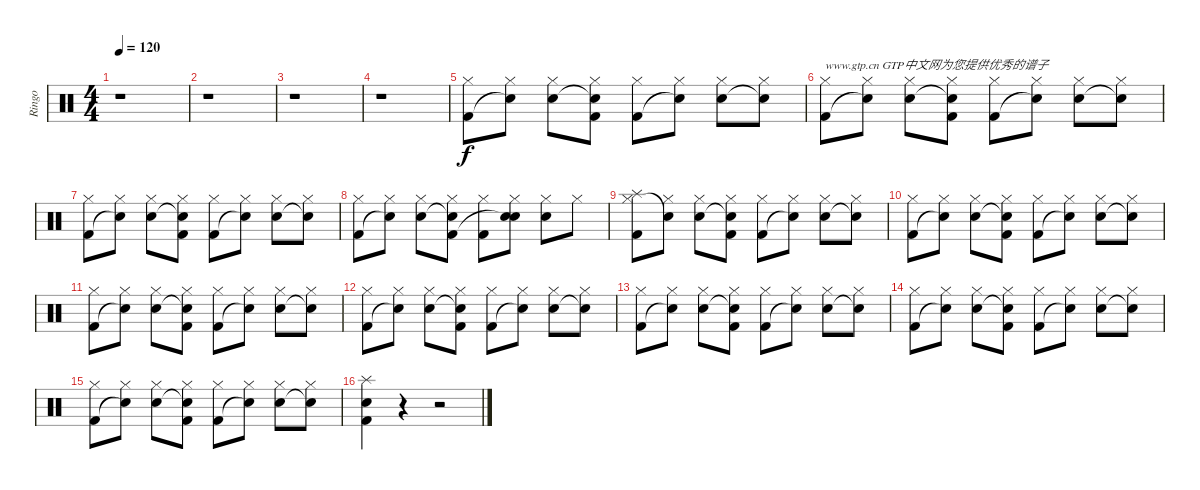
\track ("Ringo" "Ringo") {instrument percussion}
\staff {score}
\articulation defaults
\ts (4 4)
\tempo 120
\clef neutral
\ks c
r.1{dy f} |
r.1 |
r.1 |
r.1 |
("Hi-Hat (closed)" "Kick (hit) 2").8 ("Hi-Hat (closed)" "Snare (hit)"{t}).8 ("Hi-Hat (closed)" "Snare (hit) 2").8 ("Hi-Hat (closed)" "Snare (hit)"{t} "Kick (hit) 2").8 ("Hi-Hat (closed)" "Kick (hit) 2").8 ("Hi-Hat (closed)" "Snare (hit)"{t}).8 ("Hi-Hat (closed)" "Snare (hit) 2").8 ("Hi-Hat (closed)" "Snare (hit)"{t}).8 |
("Hi-Hat (closed)" "Kick (hit) 2").8{txt "www.gtp.cn GTP中文网为您提供优秀的谱子"} ("Hi-Hat (closed)" "Snare (hit)"{t}).8 ("Hi-Hat (closed)" "Snare (hit) 2").8 ("Hi-Hat (closed)" "Snare (hit)"{t} "Kick (hit) 2").8 ("Hi-Hat (closed)" "Kick (hit) 2").8 ("Hi-Hat (closed)" "Snare (hit)"{t}).8 ("Hi-Hat (closed)" "Snare (hit) 2").8 ("Hi-Hat (closed)" "Snare (hit)"{t}).8 |
("Hi-Hat (closed)" "Kick (hit) 2").8 ("Hi-Hat (closed)" "Snare (hit)"{t}).8 ("Hi-Hat (closed)" "Snare (hit) 2").8 ("Hi-Hat (closed)" "Snare (hit)"{t} "Kick (hit) 2").8 ("Hi-Hat (closed)" "Kick (hit) 2").8 ("Hi-Hat (closed)" "Snare (hit)"{t}).8 ("Hi-Hat (closed)" "Snare (hit) 2").8 ("Hi-Hat (closed)" "Snare (hit)"{t}).8 |
("Hi-Hat (closed)" "Kick (hit) 2").8 ("Hi-Hat (closed)" "Snare (hit)"{t}).8 ("Hi-Hat (closed)" "Snare (hit) 2").8 ("Hi-Hat (closed)" "Snare (hit)"{t} "Kick (hit) 2").8 ("Hi-Hat (closed)" "Kick (hit) 2").8 ("Hi-Hat (closed)" "Snare (hit) 2" "Snare (hit)"{t}).8 ("Hi-Hat (closed)" "Snare (hit) 2").8 "Hi-Hat (closed)".8 |
("Splash (hit)" "Hi-Hat (closed)" "Kick (hit) 2").8 ("Hi-Hat (closed)" "Snare (hit)"{t}).8 ("Hi-Hat (closed)" "Snare (hit) 2").8 ("Hi-Hat (closed)" "Snare (hit)"{t} "Kick (hit) 2").8 ("Hi-Hat (closed)" "Kick (hit) 2").8 ("Hi-Hat (closed)" "Snare (hit)"{t}).8 ("Hi-Hat (closed)" "Snare (hit) 2").8 ("Hi-Hat (closed)" "Snare (hit)"{t}).8 |
("Hi-Hat (closed)" "Kick (hit) 2").8 ("Hi-Hat (closed)" "Snare (hit)"{t}).8 ("Hi-Hat (closed)" "Snare (hit) 2").8 ("Hi-Hat (closed)" "Snare (hit)"{t} "Kick (hit) 2").8 ("Hi-Hat (closed)" "Kick (hit) 2").8 ("Hi-Hat (closed)" "Snare (hit)"{t}).8 ("Hi-Hat (closed)" "Snare (hit) 2").8 ("Hi-Hat (closed)" "Snare (hit)"{t}).8 |
("Hi-Hat (closed)" "Kick (hit) 2").8 ("Hi-Hat (closed)" "Snare (hit)"{t}).8 ("Hi-Hat (closed)" "Snare (hit) 2").8 ("Hi-Hat (closed)" "Snare (hit)"{t} "Kick (hit) 2").8 ("Hi-Hat (closed)" "Kick (hit) 2").8 ("Hi-Hat (closed)" "Snare (hit)"{t}).8 ("Hi-Hat (closed)" "Snare (hit) 2").8 ("Hi-Hat (closed)" "Snare (hit)"{t}).8 |
("Hi-Hat (closed)" "Kick (hit) 2").8 ("Hi-Hat (closed)" "Snare (hit)"{t}).8 ("Hi-Hat (closed)" "Snare (hit) 2").8 ("Hi-Hat (closed)" "Snare (hit)"{t} "Kick (hit) 2").8 ("Hi-Hat (closed)" "Kick (hit) 2").8 ("Hi-Hat (closed)" "Snare (hit)"{t}).8 ("Hi-Hat (closed)" "Snare (hit) 2").8 ("Hi-Hat (closed)" "Snare (hit)"{t}).8 |
("Hi-Hat (closed)" "Kick (hit) 2").8 ("Hi-Hat (closed)" "Snare (hit)"{t}).8 ("Hi-Hat (closed)" "Snare (hit) 2").8 ("Hi-Hat (closed)" "Snare (hit)"{t} "Kick (hit) 2").8 ("Hi-Hat (closed)" "Kick (hit) 2").8 ("Hi-Hat (closed)" "Snare (hit)"{t}).8 ("Hi-Hat (closed)" "Snare (hit) 2").8 ("Hi-Hat (closed)" "Snare (hit)"{t}).8 |
("Hi-Hat (closed)" "Kick (hit) 2").8 ("Hi-Hat (closed)" "Snare (hit)"{t}).8 ("Hi-Hat (closed)" "Snare (hit) 2").8 ("Hi-Hat (closed)" "Snare (hit)"{t} "Kick (hit) 2").8 ("Hi-Hat (closed)" "Kick (hit) 2").8 ("Hi-Hat (closed)" "Snare (hit)"{t}).8 ("Hi-Hat (closed)" "Snare (hit) 2").8 ("Hi-Hat (closed)" "Snare (hit)"{t}).8 |
("Hi-Hat (closed)" "Kick (hit) 2").8 ("Hi-Hat (closed)" "Snare (hit)"{t}).8 ("Hi-Hat (closed)" "Snare (hit) 2").8 ("Hi-Hat (closed)" "Snare (hit)"{t} "Kick (hit) 2").8 ("Hi-Hat (closed)" "Kick (hit) 2").8 ("Hi-Hat (closed)" "Snare (hit)"{t}).8 ("Hi-Hat (closed)" "Snare (hit) 2").8 ("Hi-Hat (closed)" "Snare (hit)"{t}).8 |
("Splash (hit)" "Snare (hit) 2" "Kick (hit) 2").4 r.4 r.2
